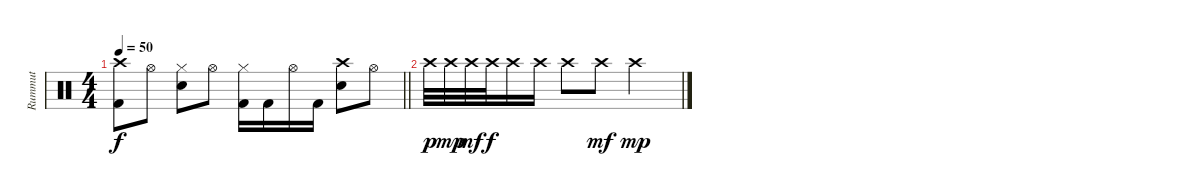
\track ("Rummut" "Rummut") {instrument percussion}
\staff {score}
\articulation defaults
\ts (4 4)
\tempo 50
\clef neutral
\barLineRight lightlight
\ks c
("Crash high (hit)" "Kick (hit) 2").8{dy f} "Hi-Hat (open)".8 ("Hi-Hat (closed)" "Snare (hit) 2").8 "Hi-Hat (open)".8 ("Hi-Hat (closed)" "Kick (hit) 2").16 "Kick (hit) 2".16 "Hi-Hat (open)".16 "Kick (hit) 2".16 ("Crash high (hit)" "Snare (hit) 2").8 "Hi-Hat (open)".8 |
"Crash high (hit)".32{dy p} "Crash high (hit)".32{dy mp} "Crash high (hit)".32{dy mf} "Crash high (hit)".32{dy f} "Crash high (hit)".16 "Crash high (hit)".16 "Crash high (hit)".8 "Crash high (hit)".8{dy mf} "Crash high (hit)".2{dy mp}
